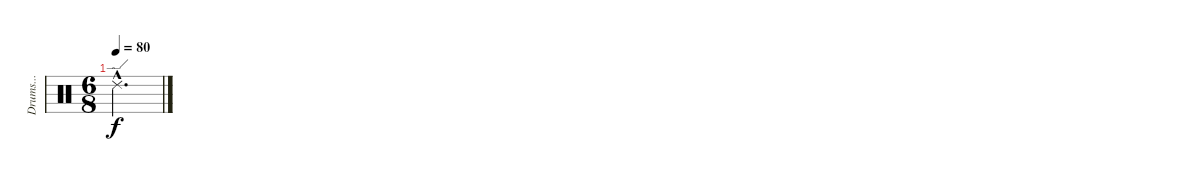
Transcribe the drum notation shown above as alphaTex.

\track ("Drums..." "Drums...") {instrument percussion}
\staff {score}
\articulation defaults
\ts (6 8)
\tempo 80
\clef neutral
\ks c "Ride (edge) 2"{hac t}.2{d dy f}
